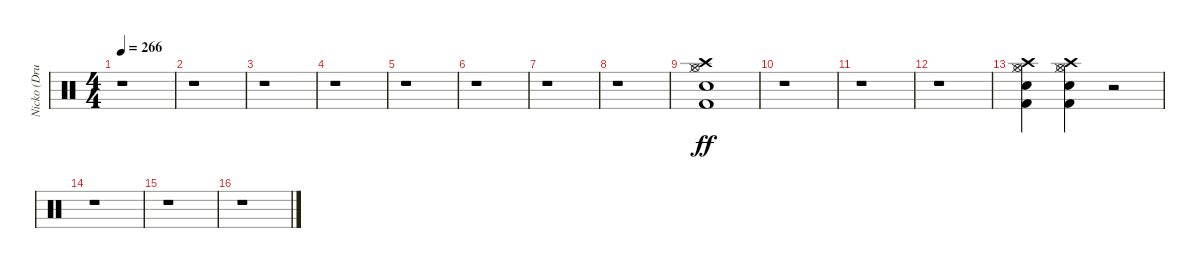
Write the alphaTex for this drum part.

\track ("Nicko (Drums)" "Nicko (Dru") {instrument percussion}
\staff {score}
\articulation defaults
\ts (4 4)
\tempo 266
\tempo 272
\tempo 266
\clef neutral
\ks c
r.1{dy ff} |
r.1 |
r.1 |
r.1 |
r.1 |
r.1 |
r.1 |
r.1 |
("Kick (hit) 2" "Snare (hit) 2" "Hi-Hat (closed)" "Hi-Hat (open)" "Crash high (hit)").1 |
r.1 |
r.1 |
r.1 |
("Kick (hit) 2" "Snare (hit) 2" "Hi-Hat (closed)" "Hi-Hat (open)" "Crash high (hit)").4 ("Kick (hit) 2" "Snare (hit) 2" "Hi-Hat (closed)" "Hi-Hat (open)" "Crash high (hit)").4 r.2 |
r.1 |
r.1 |
r.1
